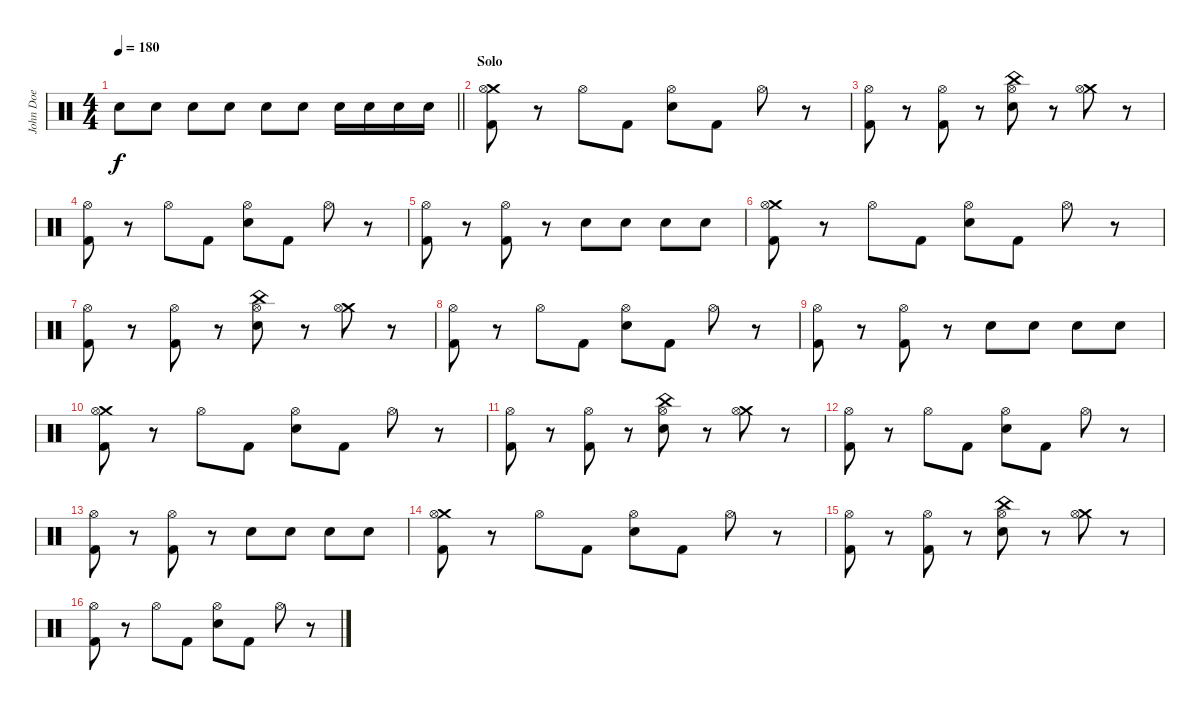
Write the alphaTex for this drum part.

\track ("John Doe" "John Doe") {instrument percussion}
\staff {score}
\articulation defaults
\ts (4 4)
\tempo 180
\clef neutral
\barLineRight lightlight
\ks c "Electric Snare (hit)".8{dy f} "Electric Snare (hit)".8 "Electric Snare (hit)".8 "Electric Snare (hit)".8 "Electric Snare (hit)".8 "Electric Snare (hit)".8 "Electric Snare (hit)".16 "Electric Snare (hit)".16 "Electric Snare (hit)".16 "Electric Snare (hit)".16
|
\section ("" "Solo")
("Crash medium (hit)" "Hi-Hat (open)" "Kick (hit) 2").8 r.8 "Hi-Hat (open)".8 "Kick (hit) 2".8 ("Hi-Hat (open)" "Electric Snare (hit)").8 "Kick (hit) 2".8 "Hi-Hat (open)".8 r.8 |
("Hi-Hat (open)" "Kick (hit) 2").8 r.8 ("Hi-Hat (open)" "Kick (hit) 2").8 r.8 ("China (hit)" "Hi-Hat (open)" "Electric Snare (hit)").8 r.8 ("Crash medium (hit)" "Hi-Hat (open)").8 r.8 |
("Hi-Hat (open)" "Kick (hit) 2").8 r.8 "Hi-Hat (open)".8 "Kick (hit) 2".8 ("Hi-Hat (open)" "Electric Snare (hit)").8 "Kick (hit) 2".8 "Hi-Hat (open)".8 r.8 |
("Hi-Hat (open)" "Kick (hit) 2").8 r.8 ("Hi-Hat (open)" "Kick (hit) 2").8 r.8 "Electric Snare (hit)".8 "Electric Snare (hit)".8 "Electric Snare (hit)".8 "Electric Snare (hit)".8 |
("Crash medium (hit)" "Hi-Hat (open)" "Kick (hit) 2").8 r.8 "Hi-Hat (open)".8 "Kick (hit) 2".8 ("Hi-Hat (open)" "Electric Snare (hit)").8 "Kick (hit) 2".8 "Hi-Hat (open)".8 r.8 |
("Hi-Hat (open)" "Kick (hit) 2").8 r.8 ("Hi-Hat (open)" "Kick (hit) 2").8 r.8 ("China (hit)" "Hi-Hat (open)" "Electric Snare (hit)").8 r.8 ("Crash medium (hit)" "Hi-Hat (open)").8 r.8 |
("Hi-Hat (open)" "Kick (hit) 2").8 r.8 "Hi-Hat (open)".8 "Kick (hit) 2".8 ("Hi-Hat (open)" "Electric Snare (hit)").8 "Kick (hit) 2".8 "Hi-Hat (open)".8 r.8 |
("Hi-Hat (open)" "Kick (hit) 2").8 r.8 ("Hi-Hat (open)" "Kick (hit) 2").8 r.8 "Electric Snare (hit)".8 "Electric Snare (hit)".8 "Electric Snare (hit)".8 "Electric Snare (hit)".8 |
("Crash medium (hit)" "Hi-Hat (open)" "Kick (hit) 2").8 r.8 "Hi-Hat (open)".8 "Kick (hit) 2".8 ("Hi-Hat (open)" "Electric Snare (hit)").8 "Kick (hit) 2".8 "Hi-Hat (open)".8 r.8 |
("Hi-Hat (open)" "Kick (hit) 2").8 r.8 ("Hi-Hat (open)" "Kick (hit) 2").8 r.8 ("China (hit)" "Hi-Hat (open)" "Electric Snare (hit)").8 r.8 ("Crash medium (hit)" "Hi-Hat (open)").8 r.8 |
("Hi-Hat (open)" "Kick (hit) 2").8 r.8 "Hi-Hat (open)".8 "Kick (hit) 2".8 ("Hi-Hat (open)" "Electric Snare (hit)").8 "Kick (hit) 2".8 "Hi-Hat (open)".8 r.8 |
("Hi-Hat (open)" "Kick (hit) 2").8 r.8 ("Hi-Hat (open)" "Kick (hit) 2").8 r.8 "Electric Snare (hit)".8 "Electric Snare (hit)".8 "Electric Snare (hit)".8 "Electric Snare (hit)".8 |
("Crash medium (hit)" "Hi-Hat (open)" "Kick (hit) 2").8 r.8 "Hi-Hat (open)".8 "Kick (hit) 2".8 ("Hi-Hat (open)" "Electric Snare (hit)").8 "Kick (hit) 2".8 "Hi-Hat (open)".8 r.8 |
("Hi-Hat (open)" "Kick (hit) 2").8 r.8 ("Hi-Hat (open)" "Kick (hit) 2").8 r.8 ("China (hit)" "Hi-Hat (open)" "Electric Snare (hit)").8 r.8 ("Crash medium (hit)" "Hi-Hat (open)").8 r.8 |
("Hi-Hat (open)" "Kick (hit) 2").8 r.8 "Hi-Hat (open)".8 "Kick (hit) 2".8 ("Hi-Hat (open)" "Electric Snare (hit)").8 "Kick (hit) 2".8 "Hi-Hat (open)".8 r.8
